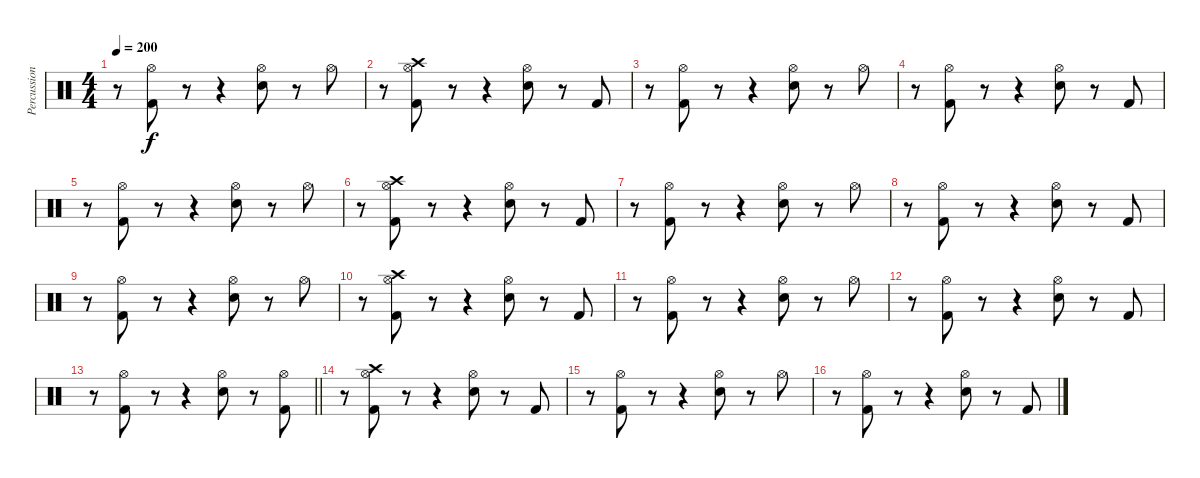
\track ("Percussion" "Percussion") {instrument percussion}
\staff {score}
\articulation defaults
\ts (4 4)
\tempo 200
\clef neutral
\ks c
r.8{dy f} ("Kick (hit) 2" "Hi-Hat (open)").8 r.8 r.4 ("Snare (hit) 2" "Hi-Hat (open)").8 r.8 "Hi-Hat (open)".8 |
r.8 ("Kick (hit) 2" "Hi-Hat (open)" "Crash high (hit)").8 r.8 r.4 ("Snare (hit) 2" "Hi-Hat (open)").8 r.8 "Kick (hit) 2".8 |
r.8 ("Kick (hit) 2" "Hi-Hat (open)").8 r.8 r.4 ("Snare (hit) 2" "Hi-Hat (open)").8 r.8 "Hi-Hat (open)".8 |
r.8 ("Kick (hit) 2" "Hi-Hat (open)").8 r.8 r.4 ("Snare (hit) 2" "Hi-Hat (open)").8 r.8 "Kick (hit) 2".8 |
r.8 ("Kick (hit) 2" "Hi-Hat (open)").8 r.8 r.4 ("Snare (hit) 2" "Hi-Hat (open)").8 r.8 "Hi-Hat (open)".8 |
r.8 ("Kick (hit) 2" "Hi-Hat (open)" "Crash high (hit)").8 r.8 r.4 ("Snare (hit) 2" "Hi-Hat (open)").8 r.8 "Kick (hit) 2".8 |
r.8 ("Kick (hit) 2" "Hi-Hat (open)").8 r.8 r.4 ("Snare (hit) 2" "Hi-Hat (open)").8 r.8 "Hi-Hat (open)".8 |
r.8 ("Kick (hit) 2" "Hi-Hat (open)").8 r.8 r.4 ("Snare (hit) 2" "Hi-Hat (open)").8 r.8 "Kick (hit) 2".8 |
r.8 ("Kick (hit) 2" "Hi-Hat (open)").8 r.8 r.4 ("Snare (hit) 2" "Hi-Hat (open)").8 r.8 "Hi-Hat (open)".8 |
r.8 ("Kick (hit) 2" "Hi-Hat (open)" "Crash high (hit)").8 r.8 r.4 ("Snare (hit) 2" "Hi-Hat (open)").8 r.8 "Kick (hit) 2".8 |
r.8 ("Kick (hit) 2" "Hi-Hat (open)").8 r.8 r.4 ("Snare (hit) 2" "Hi-Hat (open)").8 r.8 "Hi-Hat (open)".8 |
r.8 ("Kick (hit) 2" "Hi-Hat (open)").8 r.8 r.4 ("Snare (hit) 2" "Hi-Hat (open)").8 r.8 "Kick (hit) 2".8 |
\barLineRight lightlight
r.8 ("Kick (hit) 2" "Hi-Hat (open)").8 r.8 r.4 ("Snare (hit) 2" "Hi-Hat (open)").8 r.8 ("Kick (hit) 2" "Hi-Hat (open)").8 |
r.8 ("Kick (hit) 2" "Hi-Hat (open)" "Crash high (hit)").8 r.8 r.4 ("Snare (hit) 2" "Hi-Hat (open)").8 r.8 "Kick (hit) 2".8 |
r.8 ("Kick (hit) 2" "Hi-Hat (open)").8 r.8 r.4 ("Snare (hit) 2" "Hi-Hat (open)").8 r.8 "Hi-Hat (open)".8 |
r.8 ("Kick (hit) 2" "Hi-Hat (open)").8 r.8 r.4 ("Snare (hit) 2" "Hi-Hat (open)").8 r.8 "Kick (hit) 2".8
